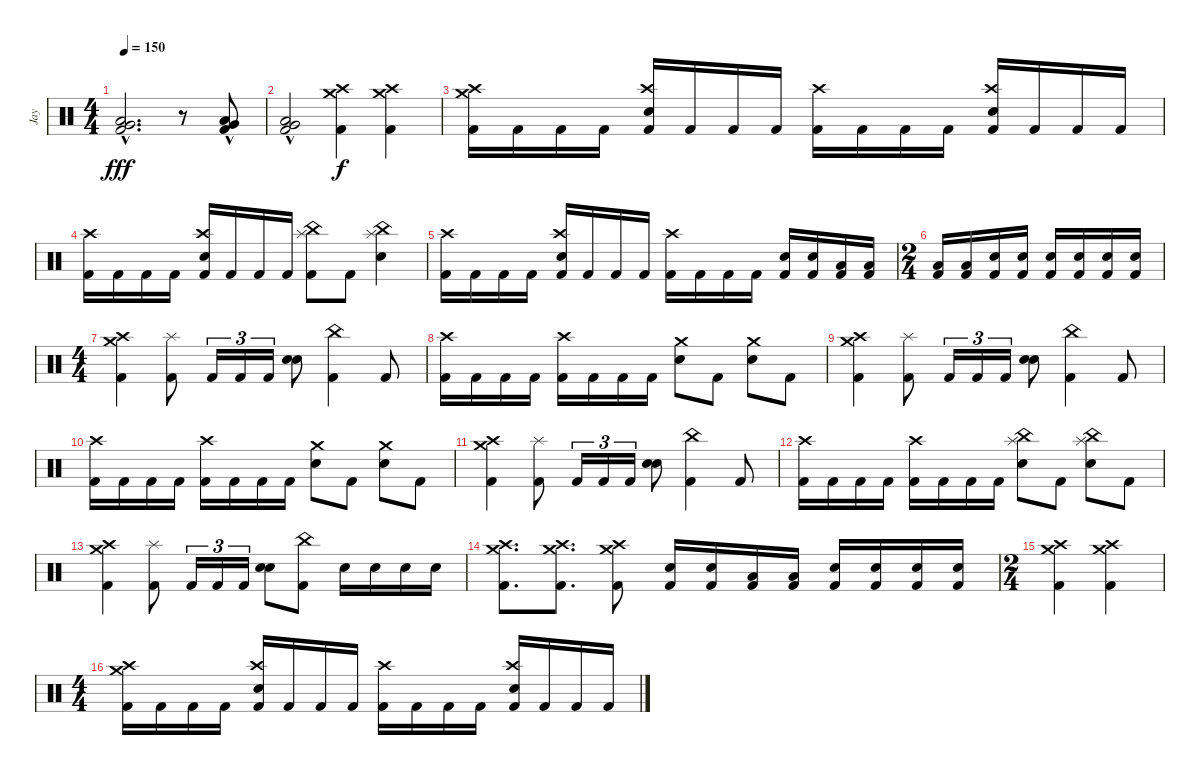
\track ("Jay" "Jay") {instrument percussion}
\staff {score}
\articulation defaults
\ts (4 4)
\tempo 150
\clef neutral
\ks c
("Very Low Tom (hit)"{hac} "Low Floor Tom (hit)"{hac} "Kick (hit) 2"{hac}).2{d dy fff} r.8 ("Very Low Tom (hit)"{hac} "Low Floor Tom (hit)"{hac} "Kick (hit) 2"{hac}).8 |
("Very Low Tom (hit)"{hac} "Low Floor Tom (hit)"{hac} "Kick (hit) 2"{hac}).2 ("Crash high (hit)" "Crash medium (hit)" "Kick (hit) 2").4{dy f} ("Crash high (hit)" "Crash medium (hit)" "Kick (hit) 2").4 |
("Crash high (hit)" "Crash medium (hit)" "Kick (hit) 2").16 "Kick (hit) 2".16 "Kick (hit) 2".16 "Kick (hit) 2".16 ("Crash high (hit)" "Electric Snare (hit)" "Kick (hit) 2").16 "Kick (hit) 2".16 "Kick (hit) 2".16 "Kick (hit) 2".16 ("Crash high (hit)" "Kick (hit) 2").16 "Kick (hit) 2".16 "Kick (hit) 2".16 "Kick (hit) 2".16 ("Crash high (hit)" "Electric Snare (hit)" "Kick (hit) 2").16 "Kick (hit) 2".16 "Kick (hit) 2".16 "Kick (hit) 2".16 |
("Crash high (hit)" "Kick (hit) 2").16 "Kick (hit) 2".16 "Kick (hit) 2".16 "Kick (hit) 2".16 ("Crash high (hit)" "Electric Snare (hit)" "Kick (hit) 2").16 "Kick (hit) 2".16 "Kick (hit) 2".16 "Kick (hit) 2".16 ("China (hit)" "Splash (hit)" "Kick (hit) 2").8 "Kick (hit) 2".8 ("China (hit)" "Splash (hit)" "Electric Snare (hit)").4 |
("Crash high (hit)" "Kick (hit) 2").16 "Kick (hit) 2".16 "Kick (hit) 2".16 "Kick (hit) 2".16 ("Crash high (hit)" "Electric Snare (hit)" "Kick (hit) 2").16 "Kick (hit) 2".16 "Kick (hit) 2".16 "Kick (hit) 2".16 ("Crash high (hit)" "Kick (hit) 2").16 "Kick (hit) 2".16 "Kick (hit) 2".16 "Kick (hit) 2".16 ("Electric Snare (hit)" "Kick (hit) 2").16 ("Electric Snare (hit)" "Kick (hit) 2").16 ("Low Tom (hit)" "Kick (hit) 2").16 ("Low Tom (hit)" "Kick (hit) 2").16 |
\ts (2 4)
("Low Tom (hit)" "Kick (hit) 2").16 ("Low Tom (hit)" "Kick (hit) 2").16 ("Electric Snare (hit)" "Kick (hit) 2").16 ("Electric Snare (hit)" "Kick (hit) 2").16 ("Electric Snare (hit)" "Kick (hit) 2").16 ("Electric Snare (hit)" "Kick (hit) 2").16 ("Electric Snare (hit)" "Kick (hit) 2").16 ("Electric Snare (hit)" "Kick (hit) 2").16 |
\ts (4 4)
("Crash high (hit)" "Crash medium (hit)" "Kick (hit) 2").4 ("Splash (hit)" "Kick (hit) 2").8 "Kick (hit) 2".16{tu (3 2)} "Kick (hit) 2".16{tu (3 2)} "Kick (hit) 2".16{tu (3 2)} ("Electric Snare (hit)" "Electric Snare (hit)").8{bu 120} ("China (hit)" "Kick (hit) 2").4 "Kick (hit) 2".8 |
("Crash high (hit)" "Kick (hit) 2").16 "Kick (hit) 2".16 "Kick (hit) 2".16 "Kick (hit) 2".16 ("Crash high (hit)" "Kick (hit) 2").16 "Kick (hit) 2".16 "Kick (hit) 2".16 "Kick (hit) 2".16 ("Crash medium (hit)" "Electric Snare (hit)").8 "Kick (hit) 2".8 ("Crash medium (hit)" "Electric Snare (hit)").8 "Kick (hit) 2".8 |
("Crash high (hit)" "Crash medium (hit)" "Kick (hit) 2").4 ("Splash (hit)" "Kick (hit) 2").8 "Kick (hit) 2".16{tu (3 2)} "Kick (hit) 2".16{tu (3 2)} "Kick (hit) 2".16{tu (3 2)} ("Electric Snare (hit)" "Electric Snare (hit)").8{bu 120} ("China (hit)" "Kick (hit) 2").4 "Kick (hit) 2".8 |
("Crash high (hit)" "Kick (hit) 2").16 "Kick (hit) 2".16 "Kick (hit) 2".16 "Kick (hit) 2".16 ("Crash high (hit)" "Kick (hit) 2").16 "Kick (hit) 2".16 "Kick (hit) 2".16 "Kick (hit) 2".16 ("Crash medium (hit)" "Electric Snare (hit)").8 "Kick (hit) 2".8 ("Crash medium (hit)" "Electric Snare (hit)").8 "Kick (hit) 2".8 |
("Crash high (hit)" "Crash medium (hit)" "Kick (hit) 2").4 ("Splash (hit)" "Kick (hit) 2").8 "Kick (hit) 2".16{tu (3 2)} "Kick (hit) 2".16{tu (3 2)} "Kick (hit) 2".16{tu (3 2)} ("Electric Snare (hit)" "Electric Snare (hit)").8{bu 120} ("China (hit)" "Kick (hit) 2").4 "Kick (hit) 2".8 |
("Crash high (hit)" "Kick (hit) 2").16 "Kick (hit) 2".16 "Kick (hit) 2".16 "Kick (hit) 2".16 ("Crash high (hit)" "Kick (hit) 2").16 "Kick (hit) 2".16 "Kick (hit) 2".16 "Kick (hit) 2".16 ("China (hit)" "Splash (hit)" "Electric Snare (hit)").8 "Kick (hit) 2".8 ("China (hit)" "Splash (hit)" "Electric Snare (hit)").8 "Kick (hit) 2".8 |
("Crash high (hit)" "Crash medium (hit)" "Kick (hit) 2").4 ("Splash (hit)" "Kick (hit) 2").8 "Kick (hit) 2".16{tu (3 2)} "Kick (hit) 2".16{tu (3 2)} "Kick (hit) 2".16{tu (3 2)} ("Electric Snare (hit)" "Electric Snare (hit)").8{bu 120} ("China (hit)" "Kick (hit) 2").8 "Electric Snare (hit)".16 "Electric Snare (hit)".16 "Electric Snare (hit)".16 "Electric Snare (hit)".16 |
("Crash high (hit)" "Crash medium (hit)" "Kick (hit) 2").8{d} ("Crash high (hit)" "Crash medium (hit)" "Kick (hit) 2").8{d} ("Crash high (hit)" "Crash medium (hit)" "Kick (hit) 2").8 ("Electric Snare (hit)" "Kick (hit) 2").16 ("Electric Snare (hit)" "Kick (hit) 2").16 ("Low Tom (hit)" "Kick (hit) 2").16 ("Low Tom (hit)" "Kick (hit) 2").16 ("Electric Snare (hit)" "Kick (hit) 2").16 ("Electric Snare (hit)" "Kick (hit) 2").16 ("Electric Snare (hit)" "Kick (hit) 2").16 ("Electric Snare (hit)" "Kick (hit) 2").16 |
\ts (2 4)
("Crash high (hit)" "Crash medium (hit)" "Kick (hit) 2").4 ("Crash high (hit)" "Crash medium (hit)" "Kick (hit) 2").4 |
\ts (4 4)
("Crash high (hit)" "Crash medium (hit)" "Kick (hit) 2").16 "Kick (hit) 2".16 "Kick (hit) 2".16 "Kick (hit) 2".16 ("Crash high (hit)" "Electric Snare (hit)" "Kick (hit) 2").16 "Kick (hit) 2".16 "Kick (hit) 2".16 "Kick (hit) 2".16 ("Crash high (hit)" "Kick (hit) 2").16 "Kick (hit) 2".16 "Kick (hit) 2".16 "Kick (hit) 2".16 ("Crash high (hit)" "Electric Snare (hit)" "Kick (hit) 2").16 "Kick (hit) 2".16 "Kick (hit) 2".16 "Kick (hit) 2".16
